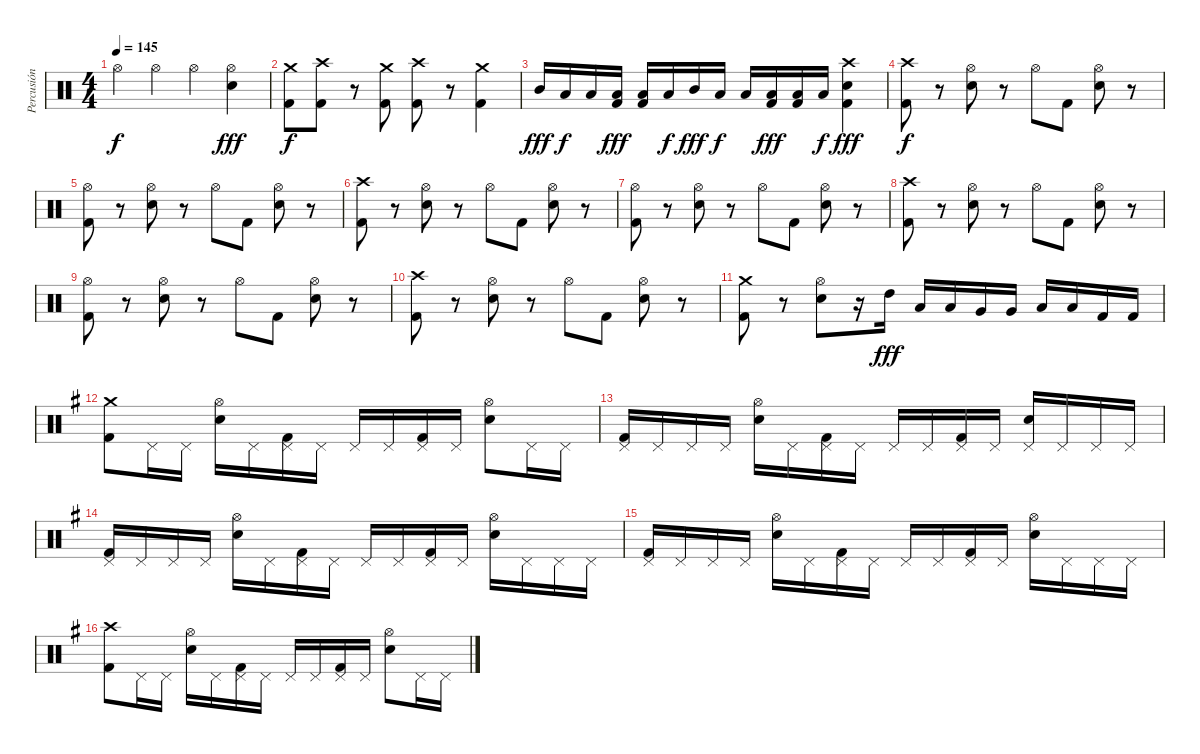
\track ("Percusión" "Percusión") {instrument percussion}
\staff {score}
\articulation defaults
\ts (4 4)
\tempo 145
\clef neutral
\ks c "Hi-Hat (open)".4{dy f} "Hi-Hat (open)".4 "Hi-Hat (open)".4
("Hi-Hat (open)" "Electric Snare (hit)").4{dy fff} |
("Crash medium (hit)" "Kick (hit) 2").8{dy f} ("Crash high (hit)" "Kick (hit) 2").8 r.8 ("Crash medium (hit)" "Kick (hit) 2").8 ("Crash high (hit)" "Kick (hit) 2").8 r.8 ("Crash medium (hit)" "Kick (hit) 2").4 |
"Mid Tom (hit)".16{dy fff} "Low Tom (hit)".16{dy f} "Low Tom (hit)".16 ("Low Tom (hit)" "Kick (hit) 2").16{dy fff} ("Low Tom (hit)" "Kick (hit) 2").16 "Low Tom (hit)".16{dy f} "Mid Tom (hit)".16{dy fff} "Low Tom (hit)".16{dy f} "Low Tom (hit)".16 ("Low Tom (hit)" "Kick (hit) 2").16{dy fff} ("Low Tom (hit)" "Kick (hit) 2").16 "Low Tom (hit)".16{dy f} ("Crash high (hit)" "Electric Snare (hit)" "Kick (hit) 2").4{dy fff} |
("Crash high (hit)" "Kick (hit) 2").8{dy f} r.8 ("Hi-Hat (open)" "Electric Snare (hit)").8 r.8 "Hi-Hat (open)".8 "Kick (hit) 2".8 ("Hi-Hat (open)" "Electric Snare (hit)").8 r.8 |
("Hi-Hat (open)" "Kick (hit) 2").8 r.8 ("Hi-Hat (open)" "Electric Snare (hit)").8 r.8 "Hi-Hat (open)".8 "Kick (hit) 2".8 ("Hi-Hat (open)" "Electric Snare (hit)").8 r.8 |
("Crash high (hit)" "Kick (hit) 2").8 r.8 ("Hi-Hat (open)" "Electric Snare (hit)").8 r.8 "Hi-Hat (open)".8 "Kick (hit) 2".8 ("Hi-Hat (open)" "Electric Snare (hit)").8 r.8 |
("Hi-Hat (open)" "Kick (hit) 2").8 r.8 ("Hi-Hat (open)" "Electric Snare (hit)").8 r.8 "Hi-Hat (open)".8 "Kick (hit) 2".8 ("Hi-Hat (open)" "Electric Snare (hit)").8 r.8 |
("Crash high (hit)" "Kick (hit) 2").8 r.8 ("Hi-Hat (open)" "Electric Snare (hit)").8 r.8 "Hi-Hat (open)".8 "Kick (hit) 2".8 ("Hi-Hat (open)" "Electric Snare (hit)").8 r.8 |
("Hi-Hat (open)" "Kick (hit) 2").8 r.8 ("Hi-Hat (open)" "Electric Snare (hit)").8 r.8 "Hi-Hat (open)".8 "Kick (hit) 2".8 ("Hi-Hat (open)" "Electric Snare (hit)").8 r.8 |
("Crash high (hit)" "Kick (hit) 2").8 r.8 ("Hi-Hat (open)" "Electric Snare (hit)").8 r.8 "Hi-Hat (open)".8 "Kick (hit) 2".8 ("Hi-Hat (open)" "Electric Snare (hit)").8 r.8 |
("Crash medium (hit)" "Kick (hit) 2").8 r.8 ("Hi-Hat (open)" "Electric Snare (hit)").8 r.16 "High Tom (hit)".16{dy fff} "Low Tom (hit)".16 "Low Tom (hit)".16 "Very Low Tom (hit)".16 "Very Low Tom (hit)".16 "Low Floor Tom (hit)".16 "Low Floor Tom (hit)".16 "Kick (hit) 2".16 "Kick (hit) 2".16 |
\ks g
("Crash medium (hit)" "Kick (hit) 2").8 "Pedal Hi-Hat (hit)".16 "Pedal Hi-Hat (hit)".16 ("Hi-Hat (open)" "Electric Snare (hit)").16 "Pedal Hi-Hat (hit)".16 ("Pedal Hi-Hat (hit)" "Kick (hit) 2").16 "Pedal Hi-Hat (hit)".16 "Pedal Hi-Hat (hit)".16 "Pedal Hi-Hat (hit)".16 ("Pedal Hi-Hat (hit)" "Kick (hit) 2").16 "Pedal Hi-Hat (hit)".16 ("Hi-Hat (open)" "Electric Snare (hit)").8 "Pedal Hi-Hat (hit)".16 "Pedal Hi-Hat (hit)".16 |
("Pedal Hi-Hat (hit)" "Kick (hit) 2").16 "Pedal Hi-Hat (hit)".16 "Pedal Hi-Hat (hit)".16 "Pedal Hi-Hat (hit)".16 ("Hi-Hat (open)" "Electric Snare (hit)").16 "Pedal Hi-Hat (hit)".16 ("Pedal Hi-Hat (hit)" "Kick (hit) 2").16 "Pedal Hi-Hat (hit)".16 "Pedal Hi-Hat (hit)".16 "Pedal Hi-Hat (hit)".16 ("Pedal Hi-Hat (hit)" "Kick (hit) 2").16 "Pedal Hi-Hat (hit)".16 ("Pedal Hi-Hat (hit)" "Electric Snare (hit)").16 "Pedal Hi-Hat (hit)".16 "Pedal Hi-Hat (hit)".16 "Pedal Hi-Hat (hit)".16 |
("Pedal Hi-Hat (hit)" "Kick (hit) 2").16 "Pedal Hi-Hat (hit)".16 "Pedal Hi-Hat (hit)".16 "Pedal Hi-Hat (hit)".16 ("Hi-Hat (open)" "Electric Snare (hit)").16 "Pedal Hi-Hat (hit)".16 ("Pedal Hi-Hat (hit)" "Kick (hit) 2").16 "Pedal Hi-Hat (hit)".16 "Pedal Hi-Hat (hit)".16 "Pedal Hi-Hat (hit)".16 ("Pedal Hi-Hat (hit)" "Kick (hit) 2").16 "Pedal Hi-Hat (hit)".16 ("Hi-Hat (open)" "Electric Snare (hit)").16 "Pedal Hi-Hat (hit)".16 "Pedal Hi-Hat (hit)".16 "Pedal Hi-Hat (hit)".16 |
("Pedal Hi-Hat (hit)" "Kick (hit) 2").16 "Pedal Hi-Hat (hit)".16 "Pedal Hi-Hat (hit)".16 "Pedal Hi-Hat (hit)".16 ("Hi-Hat (open)" "Electric Snare (hit)").16 "Pedal Hi-Hat (hit)".16 ("Pedal Hi-Hat (hit)" "Kick (hit) 2").16 "Pedal Hi-Hat (hit)".16 "Pedal Hi-Hat (hit)".16 "Pedal Hi-Hat (hit)".16 ("Pedal Hi-Hat (hit)" "Kick (hit) 2").16 "Pedal Hi-Hat (hit)".16 ("Hi-Hat (open)" "Electric Snare (hit)").16 "Pedal Hi-Hat (hit)".16 "Pedal Hi-Hat (hit)".16 "Pedal Hi-Hat (hit)".16 |
("Crash high (hit)" "Kick (hit) 2").8 "Pedal Hi-Hat (hit)".16 "Pedal Hi-Hat (hit)".16 ("Hi-Hat (open)" "Electric Snare (hit)").16 "Pedal Hi-Hat (hit)".16 ("Pedal Hi-Hat (hit)" "Kick (hit) 2").16 "Pedal Hi-Hat (hit)".16 "Pedal Hi-Hat (hit)".16 "Pedal Hi-Hat (hit)".16 ("Pedal Hi-Hat (hit)" "Kick (hit) 2").16 "Pedal Hi-Hat (hit)".16 ("Hi-Hat (open)" "Electric Snare (hit)").8 "Pedal Hi-Hat (hit)".16 "Pedal Hi-Hat (hit)".16
